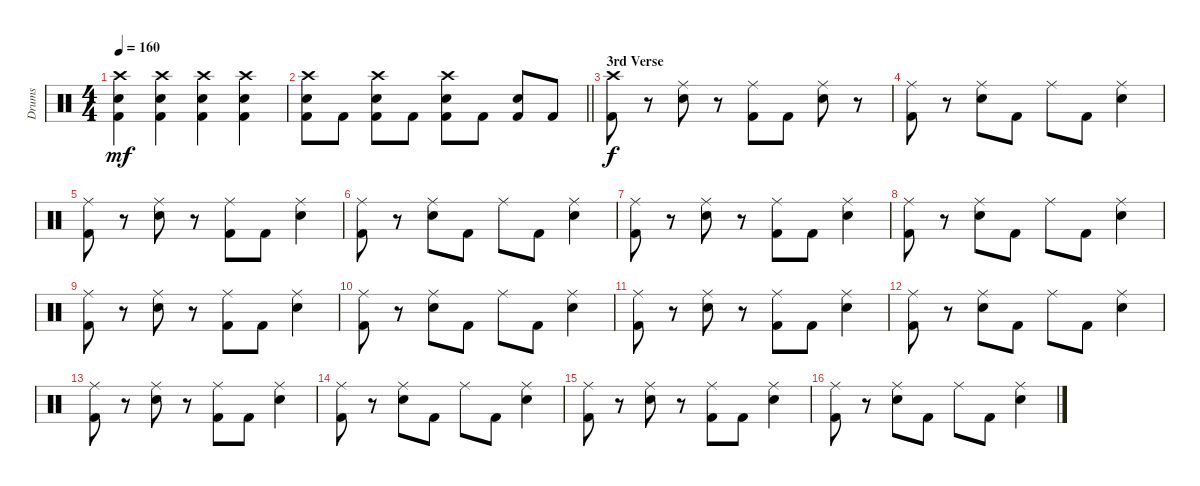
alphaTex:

\track ("Drums" "Drums") {instrument percussion}
\staff {score}
\articulation defaults
\ts (4 4)
\tempo 160
\clef neutral
\ks c
("Crash high (hit)" "Electric Snare (hit)" "Kick (hit) 2").4{dy mf} ("Crash high (hit)" "Electric Snare (hit)" "Kick (hit) 2").4 ("Crash high (hit)" "Electric Snare (hit)" "Kick (hit) 2").4 ("Crash high (hit)" "Electric Snare (hit)" "Kick (hit) 2").4 |
\barLineRight lightlight
("Crash high (hit)" "Electric Snare (hit)" "Kick (hit) 2").8 "Kick (hit) 2".8 ("Crash high (hit)" "Electric Snare (hit)" "Kick (hit) 2").8 "Kick (hit) 2".8 ("Crash high (hit)" "Electric Snare (hit)" "Kick (hit) 2").8 "Kick (hit) 2".8 ("Electric Snare (hit)" "Kick (hit) 2").8 "Kick (hit) 2".8 |
\section ("" "3rd Verse")
("Crash high (hit)" "Kick (hit) 2").8{dy f} r.8 ("Ride (middle)" "Electric Snare (hit)").8 r.8 ("Ride (middle)" "Kick (hit) 2").8 "Kick (hit) 2".8 ("Ride (middle)" "Electric Snare (hit)").8 r.8 |
("Ride (middle)" "Kick (hit) 2").8 r.8 ("Ride (middle)" "Electric Snare (hit)").8 "Kick (hit) 2".8 "Ride (middle)".8 "Kick (hit) 2".8 ("Ride (middle)" "Electric Snare (hit)").4 |
("Ride (middle)" "Kick (hit) 2").8 r.8 ("Ride (middle)" "Electric Snare (hit)").8 r.8 ("Ride (middle)" "Kick (hit) 2").8 "Kick (hit) 2".8 ("Ride (middle)" "Electric Snare (hit)").4 |
("Ride (middle)" "Kick (hit) 2").8 r.8 ("Ride (middle)" "Electric Snare (hit)").8 "Kick (hit) 2".8 "Ride (middle)".8 "Kick (hit) 2".8 ("Ride (middle)" "Electric Snare (hit)").4 |
("Ride (middle)" "Kick (hit) 2").8 r.8 ("Ride (middle)" "Electric Snare (hit)").8 r.8 ("Ride (middle)" "Kick (hit) 2").8 "Kick (hit) 2".8 ("Ride (middle)" "Electric Snare (hit)").4 |
("Ride (middle)" "Kick (hit) 2").8 r.8 ("Ride (middle)" "Electric Snare (hit)").8 "Kick (hit) 2".8 "Ride (middle)".8 "Kick (hit) 2".8 ("Ride (middle)" "Electric Snare (hit)").4 |
("Ride (middle)" "Kick (hit) 2").8 r.8 ("Ride (middle)" "Electric Snare (hit)").8 r.8 ("Ride (middle)" "Kick (hit) 2").8 "Kick (hit) 2".8 ("Ride (middle)" "Electric Snare (hit)").4 |
("Ride (middle)" "Kick (hit) 2").8 r.8 ("Ride (middle)" "Electric Snare (hit)").8 "Kick (hit) 2".8 "Ride (middle)".8 "Kick (hit) 2".8 ("Ride (middle)" "Electric Snare (hit)").4 |
("Ride (middle)" "Kick (hit) 2").8 r.8 ("Ride (middle)" "Electric Snare (hit)").8 r.8 ("Ride (middle)" "Kick (hit) 2").8 "Kick (hit) 2".8 ("Ride (middle)" "Electric Snare (hit)").4 |
("Ride (middle)" "Kick (hit) 2").8 r.8 ("Ride (middle)" "Electric Snare (hit)").8 "Kick (hit) 2".8 "Ride (middle)".8 "Kick (hit) 2".8 ("Ride (middle)" "Electric Snare (hit)").4 |
("Ride (middle)" "Kick (hit) 2").8 r.8 ("Ride (middle)" "Electric Snare (hit)").8 r.8 ("Ride (middle)" "Kick (hit) 2").8 "Kick (hit) 2".8 ("Ride (middle)" "Electric Snare (hit)").4 |
("Ride (middle)" "Kick (hit) 2").8 r.8 ("Ride (middle)" "Electric Snare (hit)").8 "Kick (hit) 2".8 "Ride (middle)".8 "Kick (hit) 2".8 ("Ride (middle)" "Electric Snare (hit)").4 |
("Ride (middle)" "Kick (hit) 2").8 r.8 ("Ride (middle)" "Electric Snare (hit)").8 r.8 ("Ride (middle)" "Kick (hit) 2").8 "Kick (hit) 2".8 ("Ride (middle)" "Electric Snare (hit)").4 |
("Ride (middle)" "Kick (hit) 2").8 r.8 ("Ride (middle)" "Electric Snare (hit)").8 "Kick (hit) 2".8 "Ride (middle)".8 "Kick (hit) 2".8 ("Ride (middle)" "Electric Snare (hit)").4
